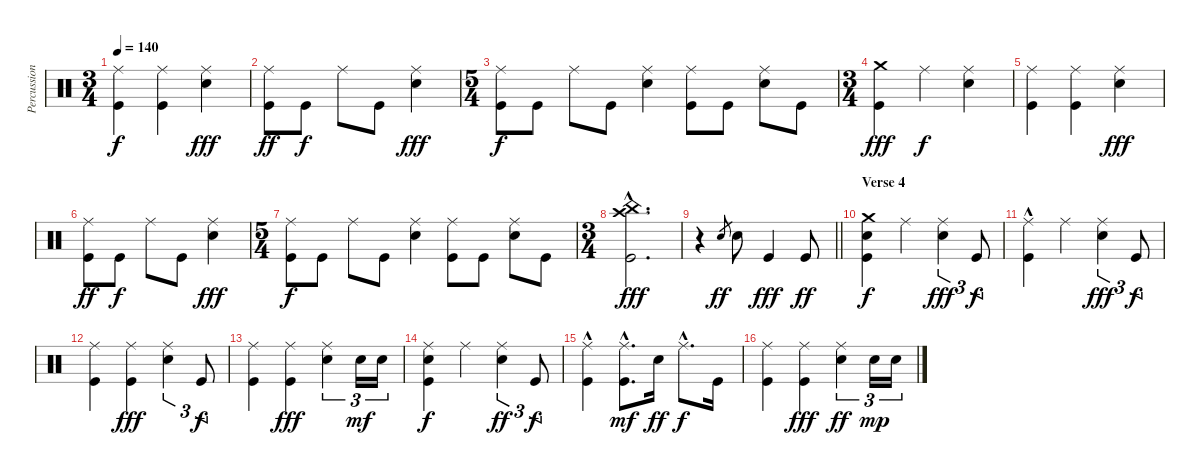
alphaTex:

\track ("Percussion" "Percussion") {instrument percussion}
\staff {score}
\articulation defaults
\ts (3 4)
\tempo 140
\clef neutral
\ks c
("Ride (middle)" "Kick (hit)").4{dy f} ("Ride (middle)" "Kick (hit)").4 ("Ride (middle)" "Electric Snare (hit)").4{dy fff} |
("Ride (middle)" "Kick (hit)").8{dy ff} "Kick (hit)".8{dy f} "Ride (middle)".8 "Kick (hit)".8 ("Ride (middle)" "Electric Snare (hit)").4{dy fff} |
\ts (5 4)
("Ride (middle)" "Kick (hit)").8{dy f} "Kick (hit)".8 "Ride (middle)".8 "Kick (hit)".8 ("Ride (middle)" "Electric Snare (hit)").4 ("Ride (middle)" "Kick (hit)").8 "Kick (hit)".8 ("Ride (middle)" "Electric Snare (hit)").8 "Kick (hit)".8 |
\ts (3 4)
("Crash medium (hit)" "Kick (hit)").4{dy fff} "Ride (middle)".4{dy f} ("Ride (middle)" "Electric Snare (hit)").4 |
("Ride (middle)" "Kick (hit)").4 ("Ride (middle)" "Kick (hit)").4 ("Ride (middle)" "Electric Snare (hit)").4{dy fff} |
("Ride (middle)" "Kick (hit)").8{dy ff} "Kick (hit)".8{dy f} "Ride (middle)".8 "Kick (hit)".8 ("Ride (middle)" "Electric Snare (hit)").4{dy fff} |
\ts (5 4)
("Ride (middle)" "Kick (hit)").8{dy f} "Kick (hit)".8 "Ride (middle)".8 "Kick (hit)".8 ("Ride (middle)" "Electric Snare (hit)").4 ("Ride (middle)" "Kick (hit)").8 "Kick (hit)".8 ("Ride (middle)" "Electric Snare (hit)").8 "Kick (hit)".8 |
\ts (3 4)
("China (hit)" "Crash high (hit)"{hac} "Kick (hit)"{hac}).2{d dy fff} |
\barLineRight lightlight
r.4 "Electric Snare (hit)".8{gr dy ff} "Electric Snare (hit)".8 "Kick (hit)".4{dy fff} "Kick (hit)".8{dy ff} |
\section ("" "Verse 4")
("Crash medium (hit)" "Electric Snare (hit)" "Kick (hit)").4{dy f} "Ride (middle)".4 ("Ride (middle)" "Electric Snare (hit)").4{tu (3 2) dy fff} "Kick (hit)".8{tu (3 2) dy f} |
("Ride (middle)"{hac} "Kick (hit)").4 "Ride (middle)".4 ("Ride (middle)" "Electric Snare (hit)").4{tu (3 2) dy fff} "Kick (hit)".8{tu (3 2) dy f} |
("Ride (middle)" "Kick (hit)").4 ("Ride (middle)" "Kick (hit)").4{dy fff} ("Ride (middle)" "Electric Snare (hit)").4{tu (3 2)} "Kick (hit)".8{tu (3 2) dy f} |
("Ride (middle)" "Kick (hit)").4 ("Ride (middle)" "Kick (hit)").4{dy fff} ("Ride (middle)" "Electric Snare (hit)").4{tu (3 2)} "Electric Snare (hit)".16{tu (3 2) dy mf} "Electric Snare (hit)".16{tu (3 2)} |
("Ride (middle)" "Electric Snare (hit)" "Kick (hit)").4{dy f} "Ride (middle)".4 ("Ride (middle)" "Electric Snare (hit)").4{tu (3 2) dy ff} "Kick (hit)".8{tu (3 2) dy f} |
("Ride (middle)"{hac} "Kick (hit)").4 ("Ride (middle)"{hac} "Kick (hit)"{hac}).8{d dy mf} "Electric Snare (hit)".16{dy ff} "Ride (middle)"{hac}.8{d dy f} "Kick (hit)".16 |
("Ride (middle)" "Kick (hit)").4 ("Ride (middle)" "Kick (hit)").4{dy fff} ("Ride (middle)" "Electric Snare (hit)").4{tu (3 2) dy ff} "Electric Snare (hit)".16{tu (3 2) dy mp} "Electric Snare (hit)".16{tu (3 2)}
